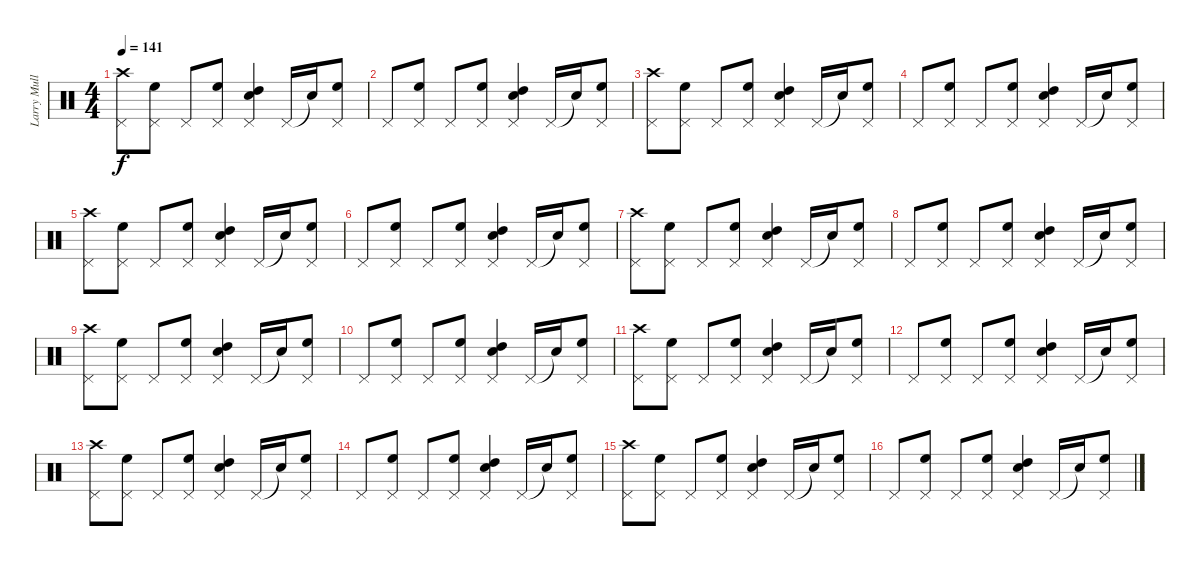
\track ("Larry Mullen Jr's Drums" "Larry Mull") {instrument percussion}
\staff {score}
\articulation defaults
\ts (4 4)
\tempo 141
\clef neutral
\ks c
("Pedal Hi-Hat (hit)" "Crash high (hit)").8{dy f} ("Pedal Hi-Hat (hit)" "High Floor Tom (hit)").8 "Pedal Hi-Hat (hit)".8 ("Pedal Hi-Hat (hit)" "High Floor Tom (hit)").8 ("Pedal Hi-Hat (hit)" "High Tom (hit)" "Electric Snare (hit)").4 "Pedal Hi-Hat (hit)".16 "Snare (hit)"{t}.16 ("Pedal Hi-Hat (hit)" "High Floor Tom (hit)").8 |
"Pedal Hi-Hat (hit)".8 ("Pedal Hi-Hat (hit)" "High Floor Tom (hit)").8 "Pedal Hi-Hat (hit)".8 ("Pedal Hi-Hat (hit)" "High Floor Tom (hit)").8 ("Pedal Hi-Hat (hit)" "High Tom (hit)" "Electric Snare (hit)").4 "Pedal Hi-Hat (hit)".16 "Snare (hit)"{t}.16 ("Pedal Hi-Hat (hit)" "High Floor Tom (hit)").8 |
("Pedal Hi-Hat (hit)" "Crash high (hit)").8 ("Pedal Hi-Hat (hit)" "High Floor Tom (hit)").8 "Pedal Hi-Hat (hit)".8 ("Pedal Hi-Hat (hit)" "High Floor Tom (hit)").8 ("Pedal Hi-Hat (hit)" "High Tom (hit)" "Electric Snare (hit)").4 "Pedal Hi-Hat (hit)".16 "Snare (hit)"{t}.16 ("Pedal Hi-Hat (hit)" "High Floor Tom (hit)").8 |
"Pedal Hi-Hat (hit)".8 ("Pedal Hi-Hat (hit)" "High Floor Tom (hit)").8 "Pedal Hi-Hat (hit)".8 ("Pedal Hi-Hat (hit)" "High Floor Tom (hit)").8 ("Pedal Hi-Hat (hit)" "High Tom (hit)" "Electric Snare (hit)").4 "Pedal Hi-Hat (hit)".16 "Snare (hit)"{t}.16 ("Pedal Hi-Hat (hit)" "High Floor Tom (hit)").8 |
("Pedal Hi-Hat (hit)" "Crash high (hit)").8 ("Pedal Hi-Hat (hit)" "High Floor Tom (hit)").8 "Pedal Hi-Hat (hit)".8 ("Pedal Hi-Hat (hit)" "High Floor Tom (hit)").8 ("Pedal Hi-Hat (hit)" "High Tom (hit)" "Electric Snare (hit)").4 "Pedal Hi-Hat (hit)".16 "Snare (hit)"{t}.16 ("Pedal Hi-Hat (hit)" "High Floor Tom (hit)").8 |
"Pedal Hi-Hat (hit)".8 ("Pedal Hi-Hat (hit)" "High Floor Tom (hit)").8 "Pedal Hi-Hat (hit)".8 ("Pedal Hi-Hat (hit)" "High Floor Tom (hit)").8 ("Pedal Hi-Hat (hit)" "High Tom (hit)" "Electric Snare (hit)").4 "Pedal Hi-Hat (hit)".16 "Snare (hit)"{t}.16 ("Pedal Hi-Hat (hit)" "High Floor Tom (hit)").8 |
("Pedal Hi-Hat (hit)" "Crash high (hit)").8 ("Pedal Hi-Hat (hit)" "High Floor Tom (hit)").8 "Pedal Hi-Hat (hit)".8 ("Pedal Hi-Hat (hit)" "High Floor Tom (hit)").8 ("Pedal Hi-Hat (hit)" "High Tom (hit)" "Electric Snare (hit)").4 "Pedal Hi-Hat (hit)".16 "Snare (hit)"{t}.16 ("Pedal Hi-Hat (hit)" "High Floor Tom (hit)").8 |
"Pedal Hi-Hat (hit)".8 ("Pedal Hi-Hat (hit)" "High Floor Tom (hit)").8 "Pedal Hi-Hat (hit)".8 ("Pedal Hi-Hat (hit)" "High Floor Tom (hit)").8 ("Pedal Hi-Hat (hit)" "High Tom (hit)" "Electric Snare (hit)").4 "Pedal Hi-Hat (hit)".16 "Snare (hit)"{t}.16 ("Pedal Hi-Hat (hit)" "High Floor Tom (hit)").8 |
("Pedal Hi-Hat (hit)" "Crash high (hit)").8 ("Pedal Hi-Hat (hit)" "High Floor Tom (hit)").8 "Pedal Hi-Hat (hit)".8 ("Pedal Hi-Hat (hit)" "High Floor Tom (hit)").8 ("Pedal Hi-Hat (hit)" "High Tom (hit)" "Electric Snare (hit)").4 "Pedal Hi-Hat (hit)".16 "Snare (hit)"{t}.16 ("Pedal Hi-Hat (hit)" "High Floor Tom (hit)").8 |
"Pedal Hi-Hat (hit)".8 ("Pedal Hi-Hat (hit)" "High Floor Tom (hit)").8 "Pedal Hi-Hat (hit)".8 ("Pedal Hi-Hat (hit)" "High Floor Tom (hit)").8 ("Pedal Hi-Hat (hit)" "High Tom (hit)" "Electric Snare (hit)").4 "Pedal Hi-Hat (hit)".16 "Snare (hit)"{t}.16 ("Pedal Hi-Hat (hit)" "High Floor Tom (hit)").8 |
("Pedal Hi-Hat (hit)" "Crash high (hit)").8 ("Pedal Hi-Hat (hit)" "High Floor Tom (hit)").8 "Pedal Hi-Hat (hit)".8 ("Pedal Hi-Hat (hit)" "High Floor Tom (hit)").8 ("Pedal Hi-Hat (hit)" "High Tom (hit)" "Electric Snare (hit)").4 "Pedal Hi-Hat (hit)".16 "Snare (hit)"{t}.16 ("Pedal Hi-Hat (hit)" "High Floor Tom (hit)").8 |
"Pedal Hi-Hat (hit)".8 ("Pedal Hi-Hat (hit)" "High Floor Tom (hit)").8 "Pedal Hi-Hat (hit)".8 ("Pedal Hi-Hat (hit)" "High Floor Tom (hit)").8 ("Pedal Hi-Hat (hit)" "High Tom (hit)" "Electric Snare (hit)").4 "Pedal Hi-Hat (hit)".16 "Snare (hit)"{t}.16 ("Pedal Hi-Hat (hit)" "High Floor Tom (hit)").8 |
("Pedal Hi-Hat (hit)" "Crash high (hit)").8 ("Pedal Hi-Hat (hit)" "High Floor Tom (hit)").8 "Pedal Hi-Hat (hit)".8 ("Pedal Hi-Hat (hit)" "High Floor Tom (hit)").8 ("Pedal Hi-Hat (hit)" "High Tom (hit)" "Electric Snare (hit)").4 "Pedal Hi-Hat (hit)".16 "Snare (hit)"{t}.16 ("Pedal Hi-Hat (hit)" "High Floor Tom (hit)").8 |
"Pedal Hi-Hat (hit)".8 ("Pedal Hi-Hat (hit)" "High Floor Tom (hit)").8 "Pedal Hi-Hat (hit)".8 ("Pedal Hi-Hat (hit)" "High Floor Tom (hit)").8 ("Pedal Hi-Hat (hit)" "High Tom (hit)" "Electric Snare (hit)").4 "Pedal Hi-Hat (hit)".16 "Snare (hit)"{t}.16 ("Pedal Hi-Hat (hit)" "High Floor Tom (hit)").8 |
("Pedal Hi-Hat (hit)" "Crash high (hit)").8 ("Pedal Hi-Hat (hit)" "High Floor Tom (hit)").8 "Pedal Hi-Hat (hit)".8 ("Pedal Hi-Hat (hit)" "High Floor Tom (hit)").8 ("Pedal Hi-Hat (hit)" "High Tom (hit)" "Electric Snare (hit)").4 "Pedal Hi-Hat (hit)".16 "Snare (hit)"{t}.16 ("Pedal Hi-Hat (hit)" "High Floor Tom (hit)").8 |
"Pedal Hi-Hat (hit)".8 ("Pedal Hi-Hat (hit)" "High Floor Tom (hit)").8 "Pedal Hi-Hat (hit)".8 ("Pedal Hi-Hat (hit)" "High Floor Tom (hit)").8 ("Pedal Hi-Hat (hit)" "High Tom (hit)" "Electric Snare (hit)").4 "Pedal Hi-Hat (hit)".16 "Snare (hit)"{t}.16 ("Pedal Hi-Hat (hit)" "High Floor Tom (hit)").8
